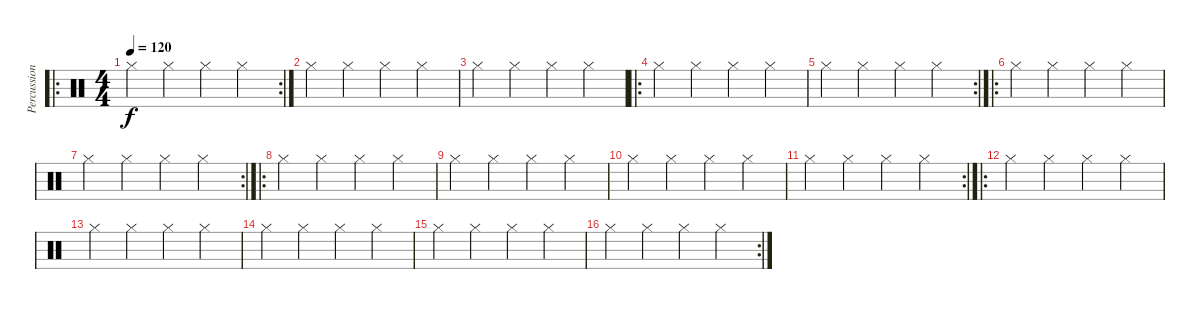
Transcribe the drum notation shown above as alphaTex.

\track ("Percussioni" "Percussion") {instrument percussion}
\staff {score}
\articulation defaults
\ro
\rc 2
\ts (4 4)
\tempo 120
\clef neutral
\ks c "Hi-Hat (closed)".4{dy f} "Hi-Hat (closed)".4 "Hi-Hat (closed)".4 "Hi-Hat (closed)".4
|
"Hi-Hat (closed)".4 "Hi-Hat (closed)".4 "Hi-Hat (closed)".4 "Hi-Hat (closed)".4 |
"Hi-Hat (closed)".4 "Hi-Hat (closed)".4 "Hi-Hat (closed)".4 "Hi-Hat (closed)".4 |
\ro "Hi-Hat (closed)".4 "Hi-Hat (closed)".4 "Hi-Hat (closed)".4 "Hi-Hat (closed)".4
|
\rc 2 "Hi-Hat (closed)".4 "Hi-Hat (closed)".4 "Hi-Hat (closed)".4 "Hi-Hat (closed)".4
|
\ro "Hi-Hat (closed)".4 "Hi-Hat (closed)".4 "Hi-Hat (closed)".4 "Hi-Hat (closed)".4
|
\rc 2 "Hi-Hat (closed)".4 "Hi-Hat (closed)".4 "Hi-Hat (closed)".4 "Hi-Hat (closed)".4
|
\ro "Hi-Hat (closed)".4 "Hi-Hat (closed)".4 "Hi-Hat (closed)".4 "Hi-Hat (closed)".4
|
"Hi-Hat (closed)".4 "Hi-Hat (closed)".4 "Hi-Hat (closed)".4 "Hi-Hat (closed)".4 |
"Hi-Hat (closed)".4 "Hi-Hat (closed)".4 "Hi-Hat (closed)".4 "Hi-Hat (closed)".4 |
\rc 2 "Hi-Hat (closed)".4 "Hi-Hat (closed)".4 "Hi-Hat (closed)".4 "Hi-Hat (closed)".4
|
\ro "Hi-Hat (closed)".4 "Hi-Hat (closed)".4 "Hi-Hat (closed)".4 "Hi-Hat (closed)".4
|
"Hi-Hat (closed)".4 "Hi-Hat (closed)".4 "Hi-Hat (closed)".4 "Hi-Hat (closed)".4 |
"Hi-Hat (closed)".4 "Hi-Hat (closed)".4 "Hi-Hat (closed)".4 "Hi-Hat (closed)".4 |
"Hi-Hat (closed)".4 "Hi-Hat (closed)".4 "Hi-Hat (closed)".4 "Hi-Hat (closed)".4 |
\rc 2 "Hi-Hat (closed)".4 "Hi-Hat (closed)".4 "Hi-Hat (closed)".4 "Hi-Hat (closed)".4
